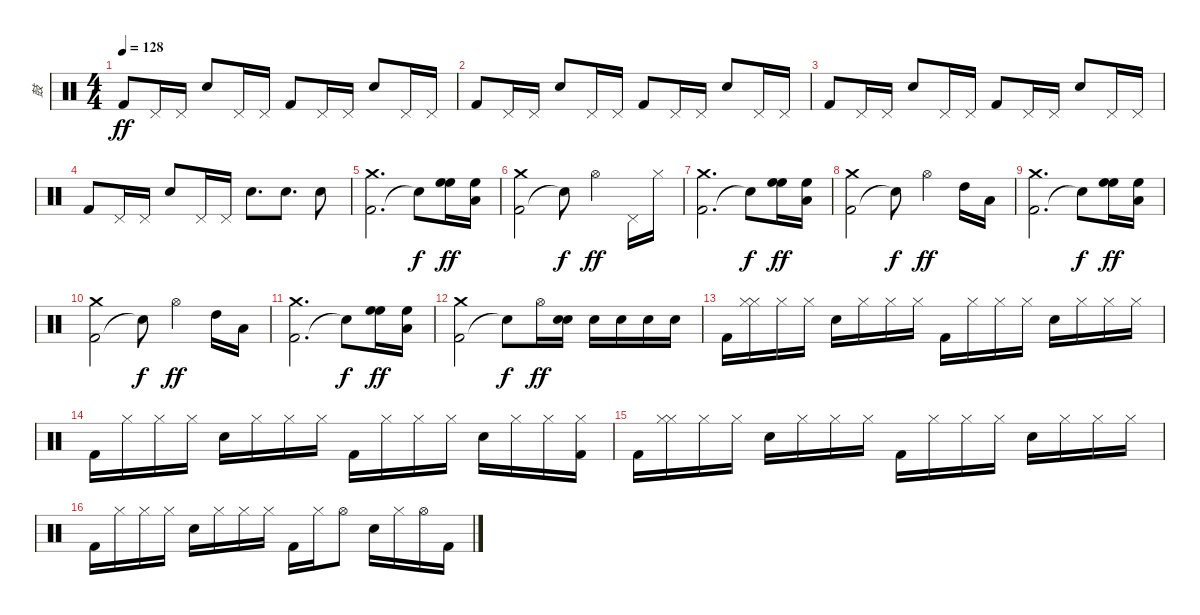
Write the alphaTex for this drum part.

\track ("鼓" "鼓") {instrument percussion}
\staff {score}
\articulation defaults
\ts (4 4)
\tempo 128
\clef neutral
\ks c "Kick (hit) 2".8{dy ff} "Pedal Hi-Hat (hit)".16 "Pedal Hi-Hat (hit)".16 "Snare (hit) 2".8 "Pedal Hi-Hat (hit)".16 "Pedal Hi-Hat (hit)".16 "Kick (hit) 2".8 "Pedal Hi-Hat (hit)".16 "Pedal Hi-Hat (hit)".16 "Snare (hit) 2".8 "Pedal Hi-Hat (hit)".16 "Pedal Hi-Hat (hit)".16
|
"Kick (hit) 2".8 "Pedal Hi-Hat (hit)".16 "Pedal Hi-Hat (hit)".16 "Snare (hit) 2".8 "Pedal Hi-Hat (hit)".16 "Pedal Hi-Hat (hit)".16 "Kick (hit) 2".8 "Pedal Hi-Hat (hit)".16 "Pedal Hi-Hat (hit)".16 "Snare (hit) 2".8 "Pedal Hi-Hat (hit)".16 "Pedal Hi-Hat (hit)".16 |
"Kick (hit) 2".8 "Pedal Hi-Hat (hit)".16 "Pedal Hi-Hat (hit)".16 "Snare (hit) 2".8 "Pedal Hi-Hat (hit)".16 "Pedal Hi-Hat (hit)".16 "Kick (hit) 2".8 "Pedal Hi-Hat (hit)".16 "Pedal Hi-Hat (hit)".16 "Snare (hit) 2".8 "Pedal Hi-Hat (hit)".16 "Pedal Hi-Hat (hit)".16 |
"Kick (hit) 2".8 "Pedal Hi-Hat (hit)".16 "Pedal Hi-Hat (hit)".16 "Snare (hit) 2".8 "Pedal Hi-Hat (hit)".16 "Pedal Hi-Hat (hit)".16 "Snare (hit) 2".8{d} "Snare (hit) 2".8{d} "Snare (hit) 2".8 |
("Kick (hit) 2" "Crash medium (hit)").2{d} "Snare (hit)"{t}.8{dy f} ("High Floor Tom (hit)" "High Floor Tom (hit)").16{dy ff} ("High Floor Tom (hit)" "Low Tom (hit)").16 |
("Kick (hit) 2" "Crash medium (hit)").2 "Snare (hit)"{t}.8{dy f} "Hi-Hat (open)".4{dy ff} "Pedal Hi-Hat (hit)".16 "Hi-Hat (closed)".16 |
("Kick (hit) 2" "Crash medium (hit)").2{d} "Snare (hit)"{t}.8{dy f} ("High Floor Tom (hit)" "High Floor Tom (hit)").16{dy ff} ("High Floor Tom (hit)" "Low Tom (hit)").16 |
("Kick (hit) 2" "Crash medium (hit)").2 "Snare (hit)"{t}.8{dy f} "Hi-Hat (open)".4{dy ff} "High Tom (hit)".16 "Low Tom (hit)".16 |
("Kick (hit) 2" "Crash medium (hit)").2{d} "Snare (hit)"{t}.8{dy f} ("High Floor Tom (hit)" "High Floor Tom (hit)").16{dy ff} ("High Floor Tom (hit)" "Low Tom (hit)").16 |
("Kick (hit) 2" "Crash medium (hit)").2 "Snare (hit)"{t}.8{dy f} "Hi-Hat (open)".4{dy ff} "High Tom (hit)".16 "Low Tom (hit)".16 |
("Kick (hit) 2" "Crash medium (hit)").2{d} "Snare (hit)"{t}.8{dy f} ("High Floor Tom (hit)" "High Floor Tom (hit)").16{dy ff} ("High Floor Tom (hit)" "Low Tom (hit)").16 |
("Kick (hit) 2" "Crash medium (hit)").2 "Snare (hit)"{t}.8{dy f} "Hi-Hat (open)".16{dy ff} ("Snare (hit) 2" "Snare (hit) 2").16 "Snare (hit) 2".16 "Snare (hit) 2".16 "Snare (hit) 2".16 "Snare (hit) 2".16 |
"Kick (hit) 2".16 ("Hi-Hat (closed)" "Hi-Hat (closed)").16 "Hi-Hat (closed)".16 "Hi-Hat (closed)".16 "Snare (hit) 2".16 "Hi-Hat (closed)".16 "Hi-Hat (closed)".16 "Hi-Hat (closed)".16 "Kick (hit) 2".16 "Hi-Hat (closed)".16 "Hi-Hat (closed)".16 "Hi-Hat (closed)".16 "Snare (hit) 2".16 "Hi-Hat (closed)".16 "Hi-Hat (closed)".16 "Hi-Hat (closed)".16 |
"Kick (hit) 2".16 "Hi-Hat (closed)".16 "Hi-Hat (closed)".16 "Hi-Hat (closed)".16 "Snare (hit) 2".16 "Hi-Hat (closed)".16 "Hi-Hat (closed)".16 "Hi-Hat (closed)".16 "Kick (hit) 2".16 "Hi-Hat (closed)".16 "Hi-Hat (closed)".16 "Hi-Hat (closed)".16 "Snare (hit) 2".16 "Hi-Hat (closed)".16 "Hi-Hat (closed)".16 ("Kick (hit) 2" "Hi-Hat (closed)").16 |
"Kick (hit) 2".16 ("Hi-Hat (closed)" "Hi-Hat (closed)").16 "Hi-Hat (closed)".16 "Hi-Hat (closed)".16 "Snare (hit) 2".16 "Hi-Hat (closed)".16 "Hi-Hat (closed)".16 "Hi-Hat (closed)".16 "Kick (hit) 2".16 "Hi-Hat (closed)".16 "Hi-Hat (closed)".16 "Hi-Hat (closed)".16 "Snare (hit) 2".16 "Hi-Hat (closed)".16 "Hi-Hat (closed)".16 "Hi-Hat (closed)".16 |
"Kick (hit) 2".16 "Hi-Hat (closed)".16 "Hi-Hat (closed)".16 "Hi-Hat (closed)".16 "Snare (hit) 2".16 "Hi-Hat (closed)".16 "Hi-Hat (closed)".16 "Hi-Hat (closed)".16 "Kick (hit) 2".16 "Hi-Hat (closed)".16 "Hi-Hat (open)".8 "Snare (hit) 2".16 "Hi-Hat (closed)".16 "Hi-Hat (open)".16 "Kick (hit) 2".16
